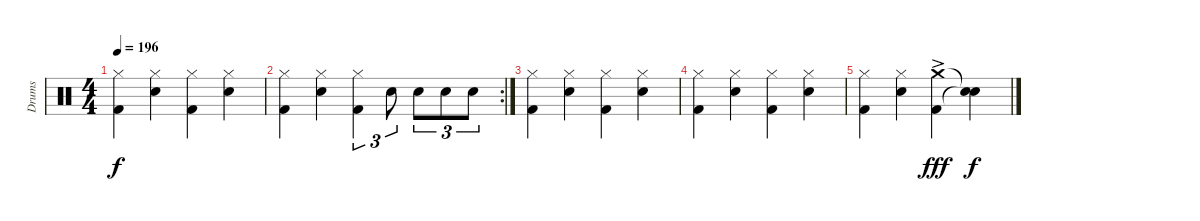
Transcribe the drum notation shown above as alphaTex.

\track ("Drums" "Drums") {instrument percussion}
\staff {score}
\articulation defaults
\ts (4 4)
\tempo 196
\clef neutral
\ks c
("Hi-Hat (closed)" "Kick (hit) 2").4{dy f} ("Hi-Hat (closed)" "Snare (hit) 2").4 ("Hi-Hat (closed)" "Kick (hit) 2").4 ("Hi-Hat (closed)" "Snare (hit) 2").4 |
\rc 2
("Hi-Hat (closed)" "Kick (hit) 2").4 ("Hi-Hat (closed)" "Snare (hit) 2").4 ("Hi-Hat (closed)" "Kick (hit) 2").4{tu (3 2)} "Snare (hit) 2".8{tu (3 2)} "Snare (hit) 2".8{tu (3 2)} "Snare (hit) 2".8{tu (3 2)} "Snare (hit) 2".8{tu (3 2)} |
("Hi-Hat (closed)" "Kick (hit) 2").4 ("Hi-Hat (closed)" "Snare (hit) 2").4 ("Hi-Hat (closed)" "Kick (hit) 2").4 ("Hi-Hat (closed)" "Snare (hit) 2").4 |
("Hi-Hat (closed)" "Kick (hit) 2").4 ("Hi-Hat (closed)" "Snare (hit) 2").4 ("Hi-Hat (closed)" "Kick (hit) 2").4 ("Hi-Hat (closed)" "Snare (hit) 2").4 |
("Hi-Hat (closed)" "Kick (hit) 2").4 ("Hi-Hat (closed)" "Snare (hit) 2").4 ("Crash medium (hit)"{ac} "Kick (hit) 2"{ac}).4{dy fff} ("Snare (hit)"{t} "Snare (hit)"{t}).4{dy f}
